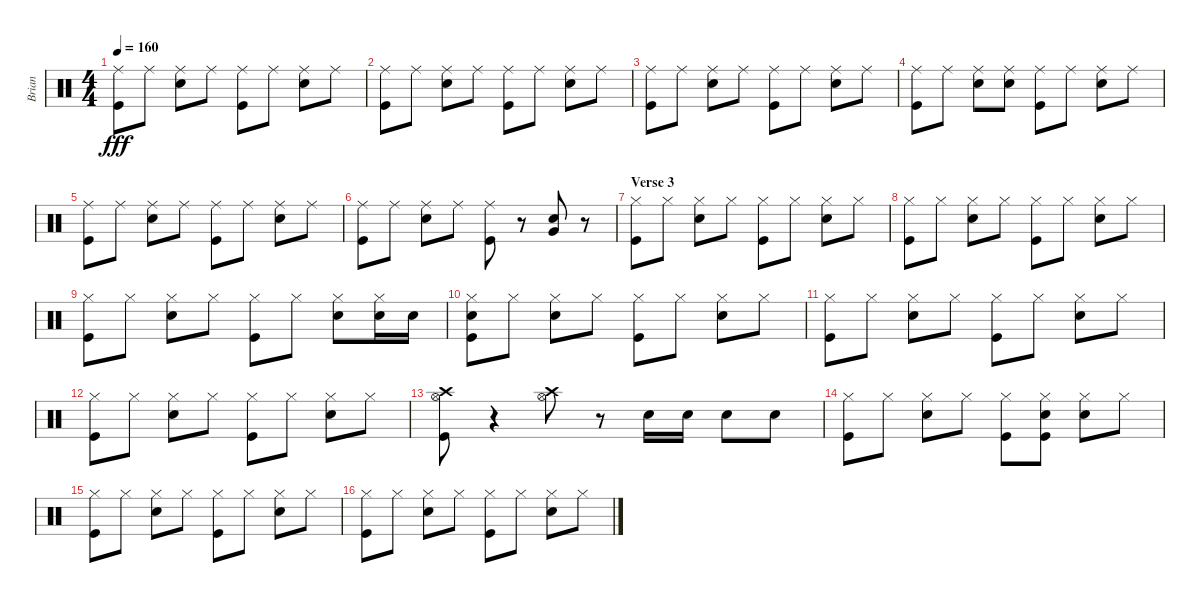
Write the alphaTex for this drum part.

\track ("Brian" "Brian") {instrument percussion}
\staff {score}
\articulation defaults
\ts (4 4)
\tempo 160
\clef neutral
\ks c
("Ride (middle)" "Kick (hit)").8{dy fff} "Ride (middle)".8 ("Ride (middle)" "Electric Snare (hit)").8 "Ride (middle)".8 ("Ride (middle)" "Kick (hit)").8 "Ride (middle)".8 ("Ride (middle)" "Electric Snare (hit)").8 "Ride (middle)".8 |
("Ride (middle)" "Kick (hit)").8 "Ride (middle)".8 ("Ride (middle)" "Electric Snare (hit)").8 "Ride (middle)".8 ("Ride (middle)" "Kick (hit)").8 "Ride (middle)".8 ("Ride (middle)" "Electric Snare (hit)").8 "Ride (middle)".8 |
("Ride (middle)" "Kick (hit)").8 "Ride (middle)".8 ("Ride (middle)" "Electric Snare (hit)").8 "Ride (middle)".8 ("Ride (middle)" "Kick (hit)").8 "Ride (middle)".8 ("Ride (middle)" "Electric Snare (hit)").8 "Ride (middle)".8 |
("Ride (middle)" "Kick (hit)").8 "Ride (middle)".8 ("Ride (middle)" "Electric Snare (hit)").8 ("Ride (middle)" "Electric Snare (hit)").8 ("Ride (middle)" "Kick (hit)").8 "Ride (middle)".8 ("Ride (middle)" "Electric Snare (hit)").8 "Ride (middle)".8 |
("Ride (middle)" "Kick (hit)").8 "Ride (middle)".8 ("Ride (middle)" "Electric Snare (hit)").8 "Ride (middle)".8 ("Ride (middle)" "Kick (hit)").8 "Ride (middle)".8 ("Ride (middle)" "Electric Snare (hit)").8 "Ride (middle)".8 |
("Ride (middle)" "Kick (hit)").8 "Ride (middle)".8 ("Ride (middle)" "Electric Snare (hit)").8 "Ride (middle)".8 ("Ride (middle)" "Kick (hit)").8 r.8 ("Very Low Tom (hit)" "Electric Snare (hit)").8 r.8 |
\section ("" "Verse 3")
("Hi-Hat (closed)" "Kick (hit)").8 "Hi-Hat (closed)".8 ("Hi-Hat (closed)" "Electric Snare (hit)").8 "Hi-Hat (closed)".8 ("Hi-Hat (closed)" "Kick (hit)").8 "Hi-Hat (closed)".8 ("Hi-Hat (closed)" "Electric Snare (hit)").8 "Hi-Hat (closed)".8 |
("Hi-Hat (closed)" "Kick (hit)").8 "Hi-Hat (closed)".8 ("Hi-Hat (closed)" "Electric Snare (hit)").8 "Hi-Hat (closed)".8 ("Hi-Hat (closed)" "Kick (hit)").8 "Hi-Hat (closed)".8 ("Hi-Hat (closed)" "Electric Snare (hit)").8 "Hi-Hat (closed)".8 |
("Hi-Hat (closed)" "Kick (hit)").8 "Hi-Hat (closed)".8 ("Hi-Hat (closed)" "Electric Snare (hit)").8 "Hi-Hat (closed)".8 ("Hi-Hat (closed)" "Kick (hit)").8 "Hi-Hat (closed)".8 ("Hi-Hat (closed)" "Electric Snare (hit)").8 ("Hi-Hat (closed)" "Snare (hit) 2").16 "Snare (hit) 2".16 |
("Hi-Hat (closed)" "Snare (hit) 2" "Kick (hit)").8 "Hi-Hat (closed)".8 ("Hi-Hat (closed)" "Electric Snare (hit)").8 "Hi-Hat (closed)".8 ("Hi-Hat (closed)" "Kick (hit)").8 "Hi-Hat (closed)".8 ("Hi-Hat (closed)" "Electric Snare (hit)").8 "Hi-Hat (closed)".8 |
("Hi-Hat (closed)" "Kick (hit)").8 "Hi-Hat (closed)".8 ("Hi-Hat (closed)" "Electric Snare (hit)").8 "Hi-Hat (closed)".8 ("Hi-Hat (closed)" "Kick (hit)").8 "Hi-Hat (closed)".8 ("Hi-Hat (closed)" "Electric Snare (hit)").8 "Hi-Hat (closed)".8 |
("Hi-Hat (closed)" "Kick (hit)").8 "Hi-Hat (closed)".8 ("Hi-Hat (closed)" "Electric Snare (hit)").8 "Hi-Hat (closed)".8 ("Hi-Hat (closed)" "Kick (hit)").8 "Hi-Hat (closed)".8 ("Hi-Hat (closed)" "Electric Snare (hit)").8 "Hi-Hat (closed)".8 |
("Crash high (hit)" "Hi-Hat (open)" "Kick (hit)").8 r.4 ("Crash high (hit)" "Hi-Hat (open)").8 r.8 "Snare (hit) 2".16 "Snare (hit) 2".16 "Snare (hit) 2".8 "Electric Snare (hit)".8 |
("Hi-Hat (closed)" "Kick (hit)").8 "Hi-Hat (closed)".8 ("Hi-Hat (closed)" "Electric Snare (hit)").8 "Hi-Hat (closed)".8 ("Hi-Hat (closed)" "Kick (hit)").8 ("Hi-Hat (closed)" "Snare (hit) 2" "Kick (hit)").8 ("Hi-Hat (closed)" "Electric Snare (hit)").8 "Hi-Hat (closed)".8 |
("Hi-Hat (closed)" "Kick (hit)").8 "Hi-Hat (closed)".8 ("Hi-Hat (closed)" "Electric Snare (hit)").8 "Hi-Hat (closed)".8 ("Hi-Hat (closed)" "Kick (hit)").8 "Hi-Hat (closed)".8 ("Hi-Hat (closed)" "Electric Snare (hit)").8 "Hi-Hat (closed)".8 |
("Hi-Hat (closed)" "Kick (hit)").8 "Hi-Hat (closed)".8 ("Hi-Hat (closed)" "Electric Snare (hit)").8 "Hi-Hat (closed)".8 ("Hi-Hat (closed)" "Kick (hit)").8 "Hi-Hat (closed)".8 ("Hi-Hat (closed)" "Electric Snare (hit)").8 "Hi-Hat (closed)".8
